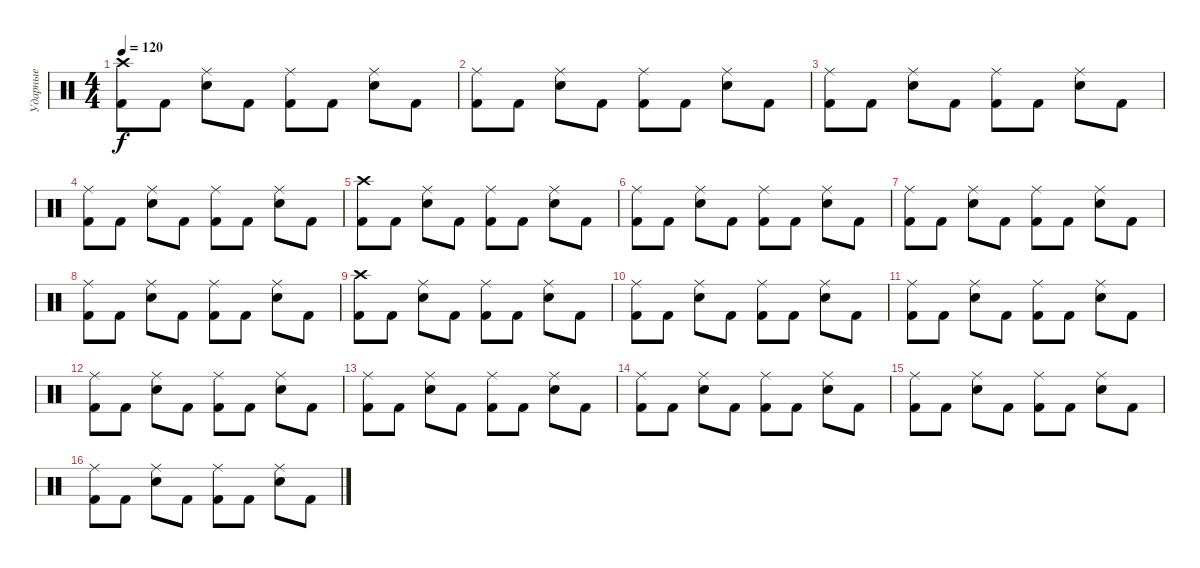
\track ("Ударные" "Ударные") {instrument percussion}
\staff {score}
\articulation defaults
\ts (4 4)
\tempo 120
\clef neutral
\ks c
("Crash high (hit)" "Kick (hit) 2").8{dy f} "Kick (hit) 2".8 ("Ride (middle)" "Snare (hit) 2").8 "Kick (hit) 2".8 ("Ride (middle)" "Kick (hit) 2").8 "Kick (hit) 2".8 ("Ride (middle)" "Snare (hit) 2").8 "Kick (hit) 2".8 |
("Ride (middle)" "Kick (hit) 2").8 "Kick (hit) 2".8 ("Ride (middle)" "Snare (hit) 2").8 "Kick (hit) 2".8 ("Ride (middle)" "Kick (hit) 2").8 "Kick (hit) 2".8 ("Ride (middle)" "Snare (hit) 2").8 "Kick (hit) 2".8 |
("Ride (middle)" "Kick (hit) 2").8 "Kick (hit) 2".8 ("Ride (middle)" "Snare (hit) 2").8 "Kick (hit) 2".8 ("Ride (middle)" "Kick (hit) 2").8 "Kick (hit) 2".8 ("Ride (middle)" "Snare (hit) 2").8 "Kick (hit) 2".8 |
("Ride (middle)" "Kick (hit) 2").8 "Kick (hit) 2".8 ("Ride (middle)" "Snare (hit) 2").8 "Kick (hit) 2".8 ("Ride (middle)" "Kick (hit) 2").8 "Kick (hit) 2".8 ("Ride (middle)" "Snare (hit) 2").8 "Kick (hit) 2".8 |
("Crash high (hit)" "Kick (hit) 2").8 "Kick (hit) 2".8 ("Ride (middle)" "Snare (hit) 2").8 "Kick (hit) 2".8 ("Ride (middle)" "Kick (hit) 2").8 "Kick (hit) 2".8 ("Ride (middle)" "Snare (hit) 2").8 "Kick (hit) 2".8 |
("Ride (middle)" "Kick (hit) 2").8 "Kick (hit) 2".8 ("Ride (middle)" "Snare (hit) 2").8 "Kick (hit) 2".8 ("Ride (middle)" "Kick (hit) 2").8 "Kick (hit) 2".8 ("Ride (middle)" "Snare (hit) 2").8 "Kick (hit) 2".8 |
("Ride (middle)" "Kick (hit) 2").8 "Kick (hit) 2".8 ("Ride (middle)" "Snare (hit) 2").8 "Kick (hit) 2".8 ("Ride (middle)" "Kick (hit) 2").8 "Kick (hit) 2".8 ("Ride (middle)" "Snare (hit) 2").8 "Kick (hit) 2".8 |
("Ride (middle)" "Kick (hit) 2").8 "Kick (hit) 2".8 ("Ride (middle)" "Snare (hit) 2").8 "Kick (hit) 2".8 ("Ride (middle)" "Kick (hit) 2").8 "Kick (hit) 2".8 ("Ride (middle)" "Snare (hit) 2").8 "Kick (hit) 2".8 |
("Crash high (hit)" "Kick (hit) 2").8 "Kick (hit) 2".8 ("Ride (middle)" "Snare (hit) 2").8 "Kick (hit) 2".8 ("Ride (middle)" "Kick (hit) 2").8 "Kick (hit) 2".8 ("Ride (middle)" "Snare (hit) 2").8 "Kick (hit) 2".8 |
("Ride (middle)" "Kick (hit) 2").8 "Kick (hit) 2".8 ("Ride (middle)" "Snare (hit) 2").8 "Kick (hit) 2".8 ("Ride (middle)" "Kick (hit) 2").8 "Kick (hit) 2".8 ("Ride (middle)" "Snare (hit) 2").8 "Kick (hit) 2".8 |
("Ride (middle)" "Kick (hit) 2").8 "Kick (hit) 2".8 ("Ride (middle)" "Snare (hit) 2").8 "Kick (hit) 2".8 ("Ride (middle)" "Kick (hit) 2").8 "Kick (hit) 2".8 ("Ride (middle)" "Snare (hit) 2").8 "Kick (hit) 2".8 |
("Ride (middle)" "Kick (hit) 2").8 "Kick (hit) 2".8 ("Ride (middle)" "Snare (hit) 2").8 "Kick (hit) 2".8 ("Ride (middle)" "Kick (hit) 2").8 "Kick (hit) 2".8 ("Ride (middle)" "Snare (hit) 2").8 "Kick (hit) 2".8 |
("Ride (middle)" "Kick (hit) 2").8 "Kick (hit) 2".8 ("Ride (middle)" "Snare (hit) 2").8 "Kick (hit) 2".8 ("Ride (middle)" "Kick (hit) 2").8 "Kick (hit) 2".8 ("Ride (middle)" "Snare (hit) 2").8 "Kick (hit) 2".8 |
("Ride (middle)" "Kick (hit) 2").8 "Kick (hit) 2".8 ("Ride (middle)" "Snare (hit) 2").8 "Kick (hit) 2".8 ("Ride (middle)" "Kick (hit) 2").8 "Kick (hit) 2".8 ("Ride (middle)" "Snare (hit) 2").8 "Kick (hit) 2".8 |
("Ride (middle)" "Kick (hit) 2").8 "Kick (hit) 2".8 ("Ride (middle)" "Snare (hit) 2").8 "Kick (hit) 2".8 ("Ride (middle)" "Kick (hit) 2").8 "Kick (hit) 2".8 ("Ride (middle)" "Snare (hit) 2").8 "Kick (hit) 2".8 |
("Ride (middle)" "Kick (hit) 2").8 "Kick (hit) 2".8 ("Ride (middle)" "Snare (hit) 2").8 "Kick (hit) 2".8 ("Ride (middle)" "Kick (hit) 2").8 "Kick (hit) 2".8 ("Ride (middle)" "Snare (hit) 2").8 "Kick (hit) 2".8
